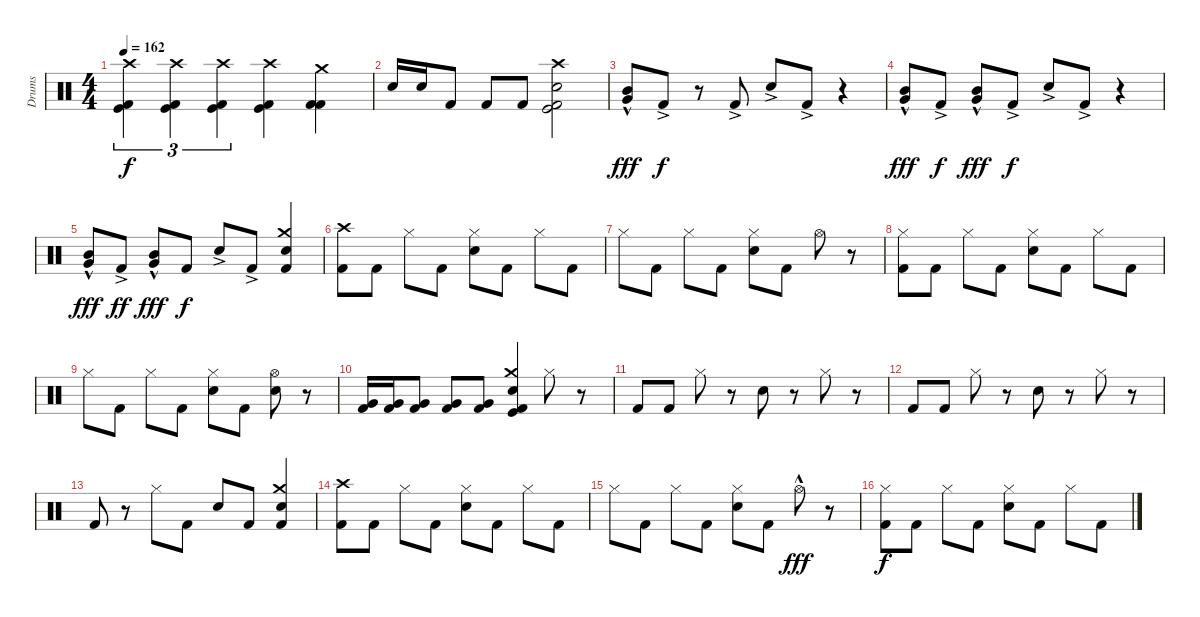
\track ("Drums" "Drums") {instrument percussion}
\staff {score}
\articulation defaults
\ts (4 4)
\tempo 162
\clef neutral
\ks c
("Crash high (hit)" "Kick (hit)" "Kick (hit) 2").4{tu (3 2) dy f} ("Crash high (hit)" "Kick (hit)" "Kick (hit) 2").4{tu (3 2)} ("Crash high (hit)" "Kick (hit)" "Kick (hit) 2").4{tu (3 2)} ("Crash high (hit)" "Kick (hit)" "Kick (hit) 2").4 ("Crash medium (hit)" "Kick (hit) 2" "Kick (hit) 2").4 |
"Electric Snare (hit)".16 "Electric Snare (hit)".16 "Kick (hit) 2".8 "Kick (hit) 2".8 "Kick (hit) 2".8 ("Crash high (hit)" "Electric Snare (hit)" "Kick (hit)" "Kick (hit) 2").2 |
("Mid Tom (hit)"{hac} "Very Low Tom (hit)"{hac}).8{dy fff} "Kick (hit) 2"{ac}.8{dy f} r.8 "Kick (hit) 2"{ac}.8 "Electric Snare (hit)"{ac}.8 "Kick (hit) 2"{ac}.8 r.4 |
("Mid Tom (hit)"{hac} "Very Low Tom (hit)"{hac}).8{dy fff} "Kick (hit) 2"{ac}.8{dy f} ("Mid Tom (hit)"{hac} "Very Low Tom (hit)"{hac}).8{dy fff} "Kick (hit) 2"{ac}.8{dy f} "Electric Snare (hit)"{ac}.8 "Kick (hit) 2"{ac}.8 r.4 |
("Mid Tom (hit)"{hac} "Very Low Tom (hit)"{hac}).8{dy fff} "Kick (hit) 2"{ac}.8{dy ff} ("Mid Tom (hit)"{hac} "Very Low Tom (hit)"{hac}).8{dy fff} "Kick (hit) 2".8{dy f} "Electric Snare (hit)"{ac}.8 "Kick (hit) 2"{ac}.8 ("Crash medium (hit)" "Electric Snare (hit)" "Kick (hit) 2").4 |
("Crash high (hit)" "Kick (hit) 2").8 "Kick (hit) 2".8 "Hi-Hat (closed)".8 "Kick (hit) 2".8 ("Hi-Hat (closed)" "Electric Snare (hit)").8 "Kick (hit) 2".8 "Hi-Hat (closed)".8 "Kick (hit) 2".8 |
"Hi-Hat (closed)".8 "Kick (hit) 2".8 "Hi-Hat (closed)".8 "Kick (hit) 2".8 ("Hi-Hat (closed)" "Electric Snare (hit)").8 "Kick (hit) 2".8 "Hi-Hat (open)".8 r.8 |
("Hi-Hat (closed)" "Kick (hit) 2").8 "Kick (hit) 2".8 "Hi-Hat (closed)".8 "Kick (hit) 2".8 ("Hi-Hat (closed)" "Electric Snare (hit)").8 "Kick (hit) 2".8 "Hi-Hat (closed)".8 "Kick (hit) 2".8 |
"Hi-Hat (closed)".8 "Kick (hit) 2".8 "Hi-Hat (closed)".8 "Kick (hit) 2".8 ("Hi-Hat (closed)" "Electric Snare (hit)").8 "Kick (hit) 2".8 ("Hi-Hat (open)" "Electric Snare (hit)").8 r.8 |
("Very Low Tom (hit)" "Kick (hit) 2").16 ("Very Low Tom (hit)" "Kick (hit) 2").16 ("Very Low Tom (hit)" "Kick (hit) 2").8 ("Very Low Tom (hit)" "Kick (hit) 2").8 ("Very Low Tom (hit)" "Kick (hit) 2").8 ("Crash medium (hit)" "Electric Snare (hit)" "Kick (hit)" "Kick (hit) 2").4 "Hi-Hat (closed)".8 r.8 |
"Kick (hit) 2".8 "Kick (hit) 2".8 "Hi-Hat (closed)".8 r.8 "Electric Snare (hit)".8 r.8 "Hi-Hat (closed)".8 r.8 |
"Kick (hit) 2".8 "Kick (hit) 2".8 "Hi-Hat (closed)".8 r.8 "Electric Snare (hit)".8 r.8 "Hi-Hat (closed)".8 r.8 |
"Kick (hit) 2".8 r.8 "Hi-Hat (closed)".8 "Kick (hit) 2".8 "Electric Snare (hit)".8 "Kick (hit) 2".8 ("Crash medium (hit)" "Electric Snare (hit)" "Kick (hit) 2").4 |
("Crash high (hit)" "Kick (hit) 2").8 "Kick (hit) 2".8 "Hi-Hat (closed)".8 "Kick (hit) 2".8 ("Hi-Hat (closed)" "Electric Snare (hit)").8 "Kick (hit) 2".8 "Hi-Hat (closed)".8 "Kick (hit) 2".8 |
"Hi-Hat (closed)".8 "Kick (hit) 2".8 "Hi-Hat (closed)".8 "Kick (hit) 2".8 ("Hi-Hat (closed)" "Electric Snare (hit)").8 "Kick (hit) 2".8 "Hi-Hat (open)"{hac}.8{dy fff} r.8 |
("Hi-Hat (closed)" "Kick (hit) 2").8{dy f} "Kick (hit) 2".8 "Hi-Hat (closed)".8 "Kick (hit) 2".8 ("Hi-Hat (closed)" "Electric Snare (hit)").8 "Kick (hit) 2".8 "Hi-Hat (closed)".8 "Kick (hit) 2".8
